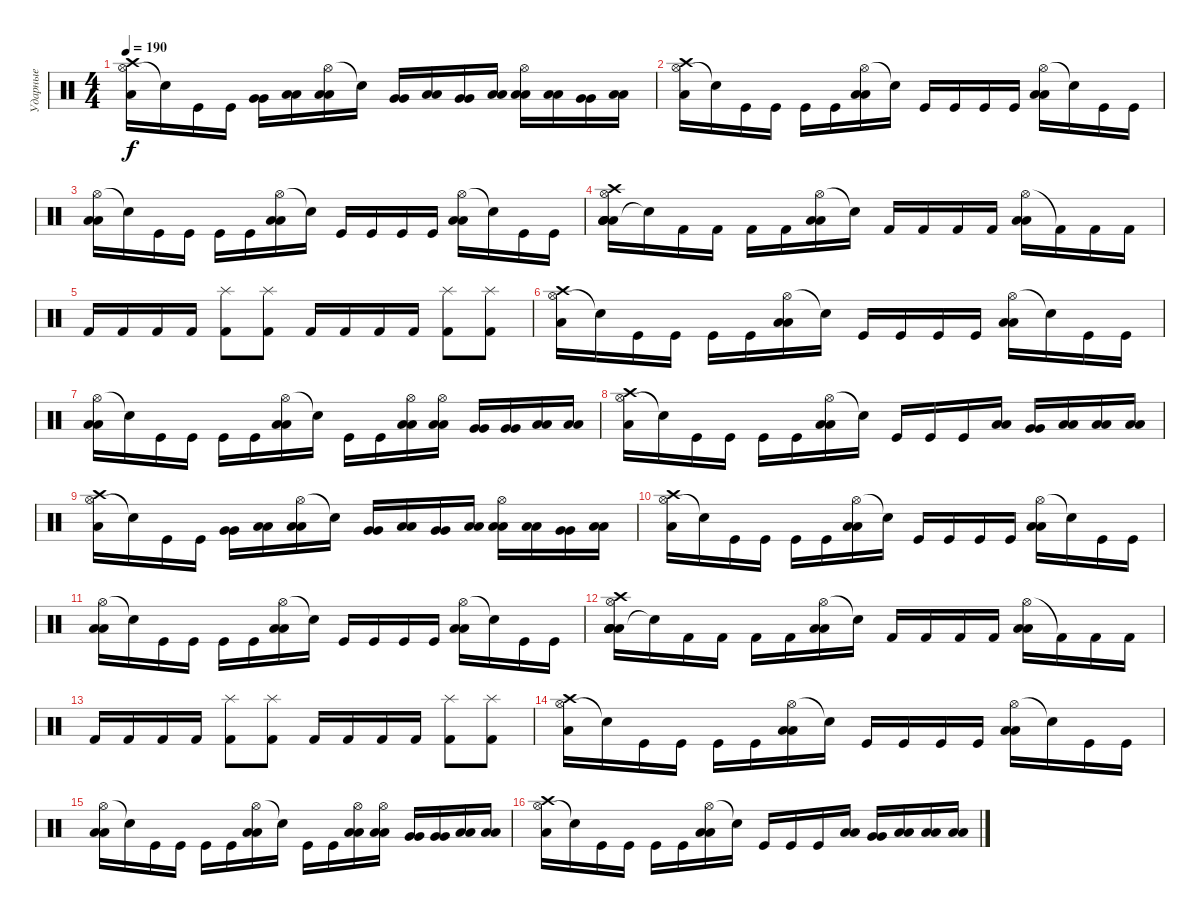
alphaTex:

\track ("Ударные" "Ударные") {instrument percussion}
\staff {score}
\articulation defaults
\ts (4 4)
\tempo 190
\clef neutral
\ks c
("Hi-Hat (open)" "Crash high (hit)" "Low Tom (hit)").16{dy f volume 13 balance 8} "Snare (hit)"{t}.16 "Kick (hit)".16 "Kick (hit)".16 ("Very Low Tom (hit)" "Very Low Tom (hit)").16{balance 10} ("Low Floor Tom (hit)" "Low Floor Tom (hit)").16{balance 5} ("Hi-Hat (open)" "Low Tom (hit)" "Low Tom (hit)").16{balance 8} "Snare (hit)"{t}.16 ("Very Low Tom (hit)" "Very Low Tom (hit)").16{balance 10} ("Low Floor Tom (hit)" "Low Floor Tom (hit)").16 ("Very Low Tom (hit)" "Very Low Tom (hit)").16{balance 10} ("Low Floor Tom (hit)" "Low Floor Tom (hit)").16 ("Hi-Hat (open)" "Low Tom (hit)" "Low Tom (hit)").16{balance 8} ("Low Floor Tom (hit)" "Low Floor Tom (hit)").16{balance 6} ("Very Low Tom (hit)" "Very Low Tom (hit)").16 ("Low Floor Tom (hit)" "Low Floor Tom (hit)").16{balance 5} |
("Hi-Hat (open)" "Crash high (hit)" "Low Tom (hit)").16{volume 13} "Snare (hit)"{t}.16 "Kick (hit)".16 "Kick (hit)".16 "Kick (hit)".16 "Kick (hit)".16 ("Hi-Hat (open)" "Low Tom (hit)" "Low Tom (hit)").16 "Snare (hit)"{t}.16 "Kick (hit)".16 "Kick (hit)".16 "Kick (hit)".16 "Kick (hit)".16 ("Hi-Hat (open)" "Low Tom (hit)" "Low Tom (hit)").16 "Snare (hit)"{t}.16 "Kick (hit)".16 "Kick (hit)".16 |
("Hi-Hat (open)" "Low Tom (hit)" "Low Tom (hit)").16 "Snare (hit)"{t}.16 "Kick (hit)".16 "Kick (hit)".16 "Kick (hit)".16 "Kick (hit)".16 ("Hi-Hat (open)" "Low Tom (hit)" "Low Tom (hit)").16 "Snare (hit)"{t}.16 "Kick (hit)".16 "Kick (hit)".16 "Kick (hit)".16 "Kick (hit)".16 ("Hi-Hat (open)" "Low Tom (hit)" "Low Tom (hit)").16 "Snare (hit)"{t}.16 "Kick (hit)".16 "Kick (hit)".16 |
("Low Floor Tom (hit)" "Hi-Hat (open)" "Crash high (hit)" "Low Tom (hit)" "Low Floor Tom (hit)" "Low Floor Tom (hit)").16 "Snare (hit)"{t}.16 "Kick (hit) 2".16 "Kick (hit) 2".16 "Kick (hit) 2".16 "Kick (hit) 2".16 ("Hi-Hat (open)" "Low Tom (hit)" "Low Tom (hit)").16 "Snare (hit)"{t}.16 "Kick (hit) 2".16 "Kick (hit) 2".16 "Kick (hit) 2".16 "Kick (hit) 2".16 ("Hi-Hat (open)" "Low Tom (hit)" "Low Tom (hit)").16 "Kick (hit) 2"{t}.16 "Kick (hit) 2".16 "Kick (hit) 2".16 |
"Kick (hit) 2".16 "Kick (hit) 2".16 "Kick (hit) 2".16 "Kick (hit) 2".16 ("Splash (hit)" "Kick (hit) 2").8 ("Splash (hit)" "Kick (hit) 2").8 "Kick (hit) 2".16 "Kick (hit) 2".16 "Kick (hit) 2".16 "Kick (hit) 2".16 ("Splash (hit)" "Kick (hit) 2").8 ("Splash (hit)" "Kick (hit) 2").8 |
("Hi-Hat (open)" "Crash high (hit)" "Low Tom (hit)").16{volume 13} "Snare (hit)"{t}.16 "Kick (hit)".16 "Kick (hit)".16 "Kick (hit)".16 "Kick (hit)".16 ("Hi-Hat (open)" "Low Tom (hit)" "Low Tom (hit)").16 "Snare (hit)"{t}.16 "Kick (hit)".16 "Kick (hit)".16 "Kick (hit)".16 "Kick (hit)".16 ("Hi-Hat (open)" "Low Tom (hit)" "Low Tom (hit)").16 "Snare (hit)"{t}.16 "Kick (hit)".16 "Kick (hit)".16 |
("Hi-Hat (open)" "Low Tom (hit)" "Low Tom (hit)").16 "Snare (hit)"{t}.16 "Kick (hit)".16 "Kick (hit)".16 "Kick (hit)".16 "Kick (hit)".16 ("Hi-Hat (open)" "Low Tom (hit)" "Low Tom (hit)").16 "Snare (hit)"{t}.16 "Kick (hit)".16 "Kick (hit)".16 ("Hi-Hat (open)" "Low Tom (hit)" "Low Tom (hit)").16 ("Hi-Hat (open)" "Low Tom (hit)" "Low Tom (hit)").16 ("Very Low Tom (hit)" "Very Low Tom (hit)").16{balance 10} ("Very Low Tom (hit)" "Very Low Tom (hit)").16 ("Low Floor Tom (hit)" "Low Floor Tom (hit)").16{balance 6} ("Low Floor Tom (hit)" "Low Floor Tom (hit)").16 |
("Hi-Hat (open)" "Crash high (hit)" "Low Tom (hit)").16{balance 8} "Snare (hit)"{t}.16 "Kick (hit)".16 "Kick (hit)".16 "Kick (hit)".16 "Kick (hit)".16 ("Hi-Hat (open)" "Low Tom (hit)" "Low Tom (hit)").16 "Snare (hit)"{t}.16 "Kick (hit)".16 "Kick (hit)".16 "Kick (hit)".16 ("Low Tom (hit)" "Low Tom (hit)").16 ("Very Low Tom (hit)" "Very Low Tom (hit)").16{balance 10} ("Low Floor Tom (hit)" "Low Floor Tom (hit)").16{balance 6} ("Low Floor Tom (hit)" "Low Floor Tom (hit)").16 ("Low Floor Tom (hit)" "Low Floor Tom (hit)").16 |
("Hi-Hat (open)" "Crash high (hit)" "Low Tom (hit)").16{volume 13 balance 8} "Snare (hit)"{t}.16 "Kick (hit)".16 "Kick (hit)".16 ("Very Low Tom (hit)" "Very Low Tom (hit)").16{balance 10} ("Low Floor Tom (hit)" "Low Floor Tom (hit)").16{balance 5} ("Hi-Hat (open)" "Low Tom (hit)" "Low Tom (hit)").16{balance 8} "Snare (hit)"{t}.16 ("Very Low Tom (hit)" "Very Low Tom (hit)").16{balance 10} ("Low Floor Tom (hit)" "Low Floor Tom (hit)").16 ("Very Low Tom (hit)" "Very Low Tom (hit)").16{balance 10} ("Low Floor Tom (hit)" "Low Floor Tom (hit)").16 ("Hi-Hat (open)" "Low Tom (hit)" "Low Tom (hit)").16{balance 8} ("Low Floor Tom (hit)" "Low Floor Tom (hit)").16{balance 6} ("Very Low Tom (hit)" "Very Low Tom (hit)").16 ("Low Floor Tom (hit)" "Low Floor Tom (hit)").16{balance 5} |
("Hi-Hat (open)" "Crash high (hit)" "Low Tom (hit)").16{volume 13} "Snare (hit)"{t}.16 "Kick (hit)".16 "Kick (hit)".16 "Kick (hit)".16 "Kick (hit)".16 ("Hi-Hat (open)" "Low Tom (hit)" "Low Tom (hit)").16 "Snare (hit)"{t}.16 "Kick (hit)".16 "Kick (hit)".16 "Kick (hit)".16 "Kick (hit)".16 ("Hi-Hat (open)" "Low Tom (hit)" "Low Tom (hit)").16 "Snare (hit)"{t}.16 "Kick (hit)".16 "Kick (hit)".16 |
("Hi-Hat (open)" "Low Tom (hit)" "Low Tom (hit)").16 "Snare (hit)"{t}.16 "Kick (hit)".16 "Kick (hit)".16 "Kick (hit)".16 "Kick (hit)".16 ("Hi-Hat (open)" "Low Tom (hit)" "Low Tom (hit)").16 "Snare (hit)"{t}.16 "Kick (hit)".16 "Kick (hit)".16 "Kick (hit)".16 "Kick (hit)".16 ("Hi-Hat (open)" "Low Tom (hit)" "Low Tom (hit)").16 "Snare (hit)"{t}.16 "Kick (hit)".16 "Kick (hit)".16 |
("Low Floor Tom (hit)" "Hi-Hat (open)" "Crash high (hit)" "Low Tom (hit)" "Low Floor Tom (hit)" "Low Floor Tom (hit)").16 "Snare (hit)"{t}.16 "Kick (hit) 2".16 "Kick (hit) 2".16 "Kick (hit) 2".16 "Kick (hit) 2".16 ("Hi-Hat (open)" "Low Tom (hit)" "Low Tom (hit)").16 "Snare (hit)"{t}.16 "Kick (hit) 2".16 "Kick (hit) 2".16 "Kick (hit) 2".16 "Kick (hit) 2".16 ("Hi-Hat (open)" "Low Tom (hit)" "Low Tom (hit)").16 "Kick (hit) 2"{t}.16 "Kick (hit) 2".16 "Kick (hit) 2".16 |
"Kick (hit) 2".16 "Kick (hit) 2".16 "Kick (hit) 2".16 "Kick (hit) 2".16 ("Splash (hit)" "Kick (hit) 2").8 ("Splash (hit)" "Kick (hit) 2").8 "Kick (hit) 2".16 "Kick (hit) 2".16 "Kick (hit) 2".16 "Kick (hit) 2".16 ("Splash (hit)" "Kick (hit) 2").8 ("Splash (hit)" "Kick (hit) 2").8 |
("Hi-Hat (open)" "Crash high (hit)" "Low Tom (hit)").16{volume 13} "Snare (hit)"{t}.16 "Kick (hit)".16 "Kick (hit)".16 "Kick (hit)".16 "Kick (hit)".16 ("Hi-Hat (open)" "Low Tom (hit)" "Low Tom (hit)").16 "Snare (hit)"{t}.16 "Kick (hit)".16 "Kick (hit)".16 "Kick (hit)".16 "Kick (hit)".16 ("Hi-Hat (open)" "Low Tom (hit)" "Low Tom (hit)").16 "Snare (hit)"{t}.16 "Kick (hit)".16 "Kick (hit)".16 |
("Hi-Hat (open)" "Low Tom (hit)" "Low Tom (hit)").16 "Snare (hit)"{t}.16 "Kick (hit)".16 "Kick (hit)".16 "Kick (hit)".16 "Kick (hit)".16 ("Hi-Hat (open)" "Low Tom (hit)" "Low Tom (hit)").16 "Snare (hit)"{t}.16 "Kick (hit)".16 "Kick (hit)".16 ("Hi-Hat (open)" "Low Tom (hit)" "Low Tom (hit)").16 ("Hi-Hat (open)" "Low Tom (hit)" "Low Tom (hit)").16 ("Very Low Tom (hit)" "Very Low Tom (hit)").16{balance 10} ("Very Low Tom (hit)" "Very Low Tom (hit)").16 ("Low Floor Tom (hit)" "Low Floor Tom (hit)").16{balance 6} ("Low Floor Tom (hit)" "Low Floor Tom (hit)").16 |
("Hi-Hat (open)" "Crash high (hit)" "Low Tom (hit)").16{balance 8} "Snare (hit)"{t}.16 "Kick (hit)".16 "Kick (hit)".16 "Kick (hit)".16 "Kick (hit)".16 ("Hi-Hat (open)" "Low Tom (hit)" "Low Tom (hit)").16 "Snare (hit)"{t}.16 "Kick (hit)".16 "Kick (hit)".16 "Kick (hit)".16 ("Low Tom (hit)" "Low Tom (hit)").16 ("Very Low Tom (hit)" "Very Low Tom (hit)").16{balance 10} ("Low Floor Tom (hit)" "Low Floor Tom (hit)").16{balance 6} ("Low Floor Tom (hit)" "Low Floor Tom (hit)").16 ("Low Floor Tom (hit)" "Low Floor Tom (hit)").16
